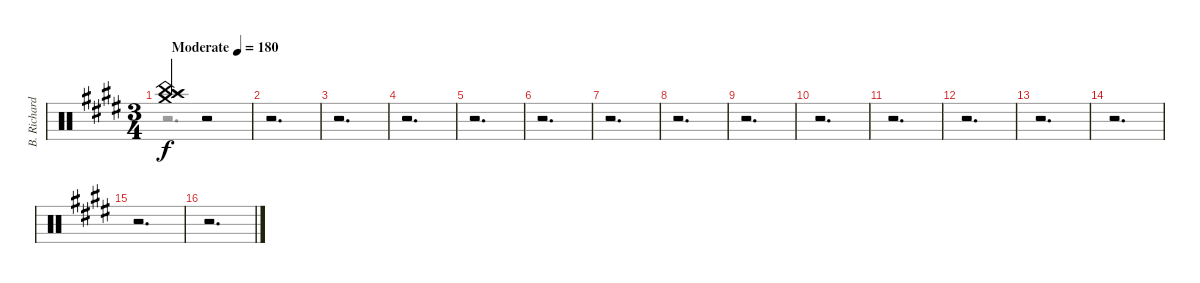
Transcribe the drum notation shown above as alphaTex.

\track ("B. Richardson Percussion" "B. Richard") {instrument percussion}
\staff {score}
\articulation defaults
\voice
\ts (3 4)
\tempo (180 "Moderate")
\clef neutral
\ks c#minor
("Crash high (hit)" "Crash medium (hit)" "Splash (hit)" "China (hit)").4{dy f} r.2 |
r.2{d} |
r.2{d} |
r.2{d} |
r.2{d} |
r.2{d} |
r.2{d} |
r.2{d} |
r.2{d} |
r.2{d} |
r.2{d} |
r.2{d} |
r.2{d} |
r.2{d} |
r.2{d} |
r.2{d}
\voice
\clef neutral
\ottava regular
\simile none
\ks c#minor
r.2{d dy f} |
r.2{d} |
r.2{d} |
r.2{d} |
r.2{d} |
r.2{d} |
r.2{d} |
r.2{d} |
r.2{d} |
r.2{d} |
r.2{d} |
r.2{d} |
r.2{d} |
r.2{d} |
r.2{d} |
r.2{d}
